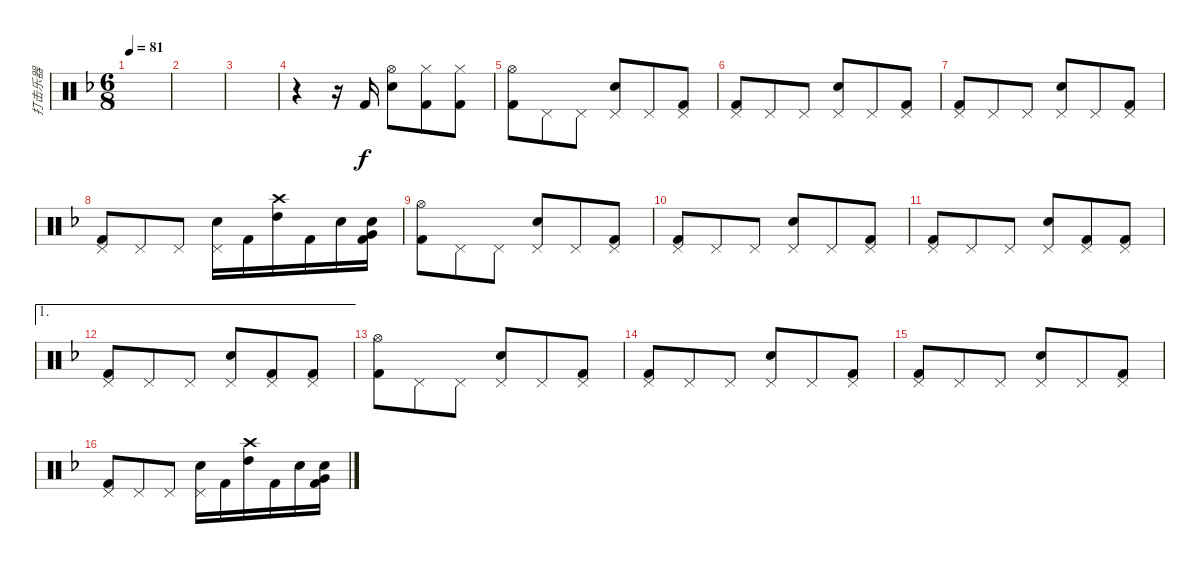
\track ("打击乐器" "打击乐器") {instrument percussion}
\staff {score}
\articulation defaults
\ts (6 8)
\tempo 81
\clef neutral
\ks f
|
|
|
r.4 r.16 "Kick (hit) 2".16 ("Hi-Hat (open)" "Snare (hit) 2").8 ("Hi-Hat (closed)" "Kick (hit) 2").8 ("Hi-Hat (closed)" "Kick (hit) 2").8 |
("Hi-Hat (open)" "Kick (hit) 2").8 "Pedal Hi-Hat (hit)".8 "Pedal Hi-Hat (hit)".8 ("Pedal Hi-Hat (hit)" "Snare (hit) 2").8 "Pedal Hi-Hat (hit)".8 ("Pedal Hi-Hat (hit)" "Kick (hit) 2").8 |
("Pedal Hi-Hat (hit)" "Kick (hit) 2").8 "Pedal Hi-Hat (hit)".8 "Pedal Hi-Hat (hit)".8 ("Pedal Hi-Hat (hit)" "Snare (hit) 2").8 "Pedal Hi-Hat (hit)".8 ("Pedal Hi-Hat (hit)" "Kick (hit) 2").8 |
("Pedal Hi-Hat (hit)" "Kick (hit) 2").8 "Pedal Hi-Hat (hit)".8 "Pedal Hi-Hat (hit)".8 ("Pedal Hi-Hat (hit)" "Snare (hit) 2").8 "Pedal Hi-Hat (hit)".8 ("Pedal Hi-Hat (hit)" "Kick (hit) 2").8 |
("Pedal Hi-Hat (hit)" "Kick (hit) 2").8 "Pedal Hi-Hat (hit)".8 "Pedal Hi-Hat (hit)".8 ("Pedal Hi-Hat (hit)" "Snare (hit) 2").16 "Kick (hit) 2".16 ("Crash high (hit)" "High Tom (hit)").16 "Kick (hit) 2".16 "Snare (hit) 2".16 ("Snare (hit) 2" "Very Low Tom (hit)" "Kick (hit) 2").16 |
("Hi-Hat (open)" "Kick (hit) 2").8 "Pedal Hi-Hat (hit)".8 "Pedal Hi-Hat (hit)".8 ("Pedal Hi-Hat (hit)" "Snare (hit) 2").8 "Pedal Hi-Hat (hit)".8 ("Pedal Hi-Hat (hit)" "Kick (hit) 2").8 |
("Pedal Hi-Hat (hit)" "Kick (hit) 2").8 "Pedal Hi-Hat (hit)".8 "Pedal Hi-Hat (hit)".8 ("Pedal Hi-Hat (hit)" "Snare (hit) 2").8 "Pedal Hi-Hat (hit)".8 ("Pedal Hi-Hat (hit)" "Kick (hit) 2").8 |
("Pedal Hi-Hat (hit)" "Kick (hit) 2").8 "Pedal Hi-Hat (hit)".8 "Pedal Hi-Hat (hit)".8 ("Pedal Hi-Hat (hit)" "Snare (hit) 2").8 ("Pedal Hi-Hat (hit)" "Kick (hit) 2").8 ("Pedal Hi-Hat (hit)" "Kick (hit) 2").8 |
\ae 1
("Pedal Hi-Hat (hit)" "Kick (hit) 2").8 "Pedal Hi-Hat (hit)".8 "Pedal Hi-Hat (hit)".8 ("Pedal Hi-Hat (hit)" "Snare (hit) 2").8 ("Pedal Hi-Hat (hit)" "Kick (hit) 2").8 ("Pedal Hi-Hat (hit)" "Kick (hit) 2").8 |
("Hi-Hat (open)" "Kick (hit) 2").8 "Pedal Hi-Hat (hit)".8 "Pedal Hi-Hat (hit)".8 ("Pedal Hi-Hat (hit)" "Snare (hit) 2").8 "Pedal Hi-Hat (hit)".8 ("Pedal Hi-Hat (hit)" "Kick (hit) 2").8 |
("Pedal Hi-Hat (hit)" "Kick (hit) 2").8 "Pedal Hi-Hat (hit)".8 "Pedal Hi-Hat (hit)".8 ("Pedal Hi-Hat (hit)" "Snare (hit) 2").8 "Pedal Hi-Hat (hit)".8 ("Pedal Hi-Hat (hit)" "Kick (hit) 2").8 |
("Pedal Hi-Hat (hit)" "Kick (hit) 2").8 "Pedal Hi-Hat (hit)".8 "Pedal Hi-Hat (hit)".8 ("Pedal Hi-Hat (hit)" "Snare (hit) 2").8 "Pedal Hi-Hat (hit)".8 ("Pedal Hi-Hat (hit)" "Kick (hit) 2").8 |
("Pedal Hi-Hat (hit)" "Kick (hit) 2").8 "Pedal Hi-Hat (hit)".8 "Pedal Hi-Hat (hit)".8 ("Pedal Hi-Hat (hit)" "Snare (hit) 2").16 "Kick (hit) 2".16 ("Crash high (hit)" "High Tom (hit)").16 "Kick (hit) 2".16 "Snare (hit) 2".16 ("Snare (hit) 2" "Very Low Tom (hit)" "Kick (hit) 2").16
